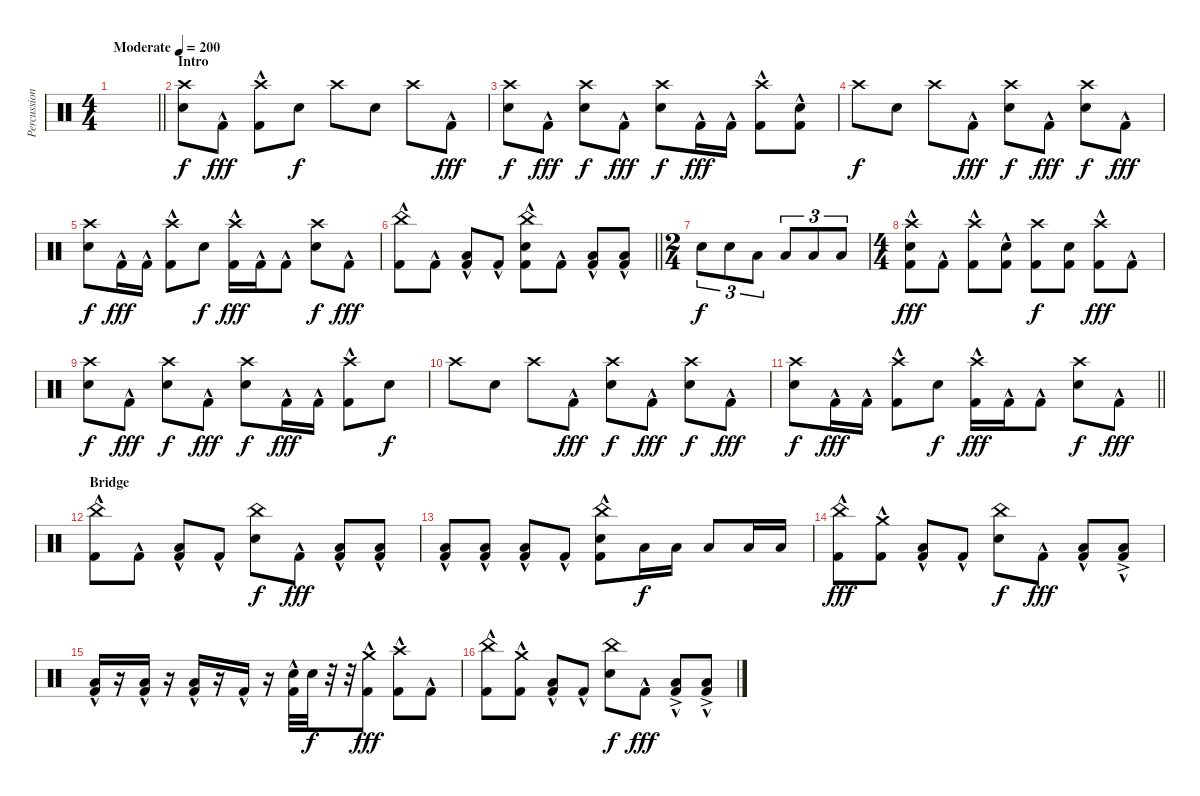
\track ("Percussion" "Percussion") {instrument percussion}
\staff {score}
\articulation defaults
\ts (4 4)
\tempo (200 "Moderate")
\clef neutral
\barLineRight lightlight
\ks c
|
\section ("" "Intro")
("Crash high (hit)" "Electric Snare (hit)").8 "Kick (hit) 2"{hac}.8{dy fff} ("Crash high (hit)" "Kick (hit) 2"{hac}).8 "Electric Snare (hit)".8{dy f} "Crash high (hit)".8 "Electric Snare (hit)".8 "Crash high (hit)".8 "Kick (hit) 2"{hac}.8{dy fff} |
("Crash high (hit)" "Electric Snare (hit)").8{dy f} "Kick (hit) 2"{hac}.8{dy fff} ("Crash high (hit)" "Electric Snare (hit)").8{dy f} "Kick (hit) 2"{hac}.8{dy fff} ("Crash high (hit)" "Electric Snare (hit)").8{dy f} "Kick (hit) 2"{hac}.16{dy fff} "Kick (hit) 2"{hac}.16 ("Crash high (hit)" "Kick (hit) 2"{hac}).8 ("Electric Snare (hit)" "Kick (hit) 2"{hac}).8 |
"Crash high (hit)".8{dy f} "Electric Snare (hit)".8 "Crash high (hit)".8 "Kick (hit) 2"{hac}.8{dy fff} ("Crash high (hit)" "Electric Snare (hit)").8{dy f} "Kick (hit) 2"{hac}.8{dy fff} ("Crash high (hit)" "Electric Snare (hit)").8{dy f} "Kick (hit) 2"{hac}.8{dy fff} |
("Crash high (hit)" "Electric Snare (hit)").8{dy f} "Kick (hit) 2"{hac}.16{dy fff} "Kick (hit) 2"{hac}.16 ("Crash high (hit)" "Kick (hit) 2"{hac}).8 "Electric Snare (hit)".8{dy f} ("Crash high (hit)" "Kick (hit) 2"{hac}).16{dy fff} "Kick (hit) 2"{hac}.16 "Kick (hit) 2"{hac}.8 ("Crash high (hit)" "Electric Snare (hit)").8{dy f} "Kick (hit) 2"{hac}.8{dy fff} |
\barLineRight lightlight
("China (hit)" "Kick (hit) 2"{hac}).8 "Kick (hit) 2"{hac}.8 ("Low Floor Tom (hit)" "Kick (hit) 2"{hac}).8 "Kick (hit) 2"{hac}.8 ("Electric Snare (hit)" "China (hit)" "Kick (hit) 2"{hac}).8 "Kick (hit) 2"{hac}.8 ("Low Floor Tom (hit)" "Kick (hit) 2"{hac}).8 ("Low Tom (hit)" "Kick (hit) 2"{hac}).8 |
\ts (2 4)
"Electric Snare (hit)".8{tu (3 2) dy f} "Electric Snare (hit)".8{tu (3 2)} "Low Tom (hit)".8{tu (3 2)} "Low Tom (hit)".8{tu (3 2)} "Low Floor Tom (hit)".8{tu (3 2)} "Low Floor Tom (hit)".8{tu (3 2)} |
\ts (4 4)
("Crash high (hit)" "Electric Snare (hit)" "Kick (hit) 2"{hac}).8{dy fff} "Kick (hit) 2"{hac}.8 ("Crash high (hit)" "Kick (hit) 2"{hac}).8 ("Electric Snare (hit)" "Kick (hit) 2"{hac}).8 ("Crash high (hit)" "Kick (hit) 2").8{dy f} ("Electric Snare (hit)" "Kick (hit) 2").8 ("Crash high (hit)" "Kick (hit) 2"{hac}).8{dy fff} "Kick (hit) 2"{hac}.8 |
("Crash high (hit)" "Electric Snare (hit)").8{dy f} "Kick (hit) 2"{hac}.8{dy fff} ("Crash high (hit)" "Electric Snare (hit)").8{dy f} "Kick (hit) 2"{hac}.8{dy fff} ("Crash high (hit)" "Electric Snare (hit)").8{dy f} "Kick (hit) 2"{hac}.16{dy fff} "Kick (hit) 2"{hac}.16 ("Crash high (hit)" "Kick (hit) 2"{hac}).8 "Electric Snare (hit)".8{dy f} |
"Crash high (hit)".8 "Electric Snare (hit)".8 "Crash high (hit)".8 "Kick (hit) 2"{hac}.8{dy fff} ("Crash high (hit)" "Electric Snare (hit)").8{dy f} "Kick (hit) 2"{hac}.8{dy fff} ("Crash high (hit)" "Electric Snare (hit)").8{dy f} "Kick (hit) 2"{hac}.8{dy fff} |
\barLineRight lightlight
("Crash high (hit)" "Electric Snare (hit)").8{dy f} "Kick (hit) 2"{hac}.16{dy fff} "Kick (hit) 2"{hac}.16 ("Crash high (hit)" "Kick (hit) 2"{hac}).8 "Electric Snare (hit)".8{dy f} ("Crash high (hit)" "Kick (hit) 2"{hac}).16{dy fff} "Kick (hit) 2"{hac}.16 "Kick (hit) 2"{hac}.8 ("Crash high (hit)" "Electric Snare (hit)").8{dy f} "Kick (hit) 2"{hac}.8{dy fff} |
\section ("" "Bridge")
("China (hit)" "Kick (hit) 2"{hac}).8 "Kick (hit) 2"{hac}.8 ("Low Floor Tom (hit)" "Kick (hit) 2"{hac}).8 "Kick (hit) 2"{hac}.8 ("Electric Snare (hit)" "China (hit)").8{dy f} "Kick (hit) 2"{hac}.8{dy fff} ("Low Floor Tom (hit)" "Kick (hit) 2"{hac}).8 ("Low Tom (hit)" "Kick (hit) 2"{hac}).8 |
("Low Floor Tom (hit)" "Kick (hit) 2"{hac}).8 ("Low Tom (hit)" "Kick (hit) 2"{hac}).8 ("Low Floor Tom (hit)" "Kick (hit) 2"{hac}).8 "Kick (hit) 2"{hac}.8 ("China (hit)" "Electric Snare (hit)" "Kick (hit) 2"{hac}).8 "Low Tom (hit)".16{dy f} "Low Tom (hit)".16 "Low Tom (hit)".8 "Low Tom (hit)".16 "Low Floor Tom (hit)".16 |
("China (hit)" "Kick (hit) 2"{hac}).8{dy fff} ("Crash medium (hit)" "Kick (hit) 2"{hac}).8 ("Low Floor Tom (hit)" "Kick (hit) 2"{hac}).8 "Kick (hit) 2"{hac}.8 ("China (hit)" "Electric Snare (hit)").8{dy f} "Kick (hit) 2"{hac}.8{dy fff} ("Low Floor Tom (hit)" "Kick (hit) 2"{hac}).8 ("Low Tom (hit)"{ac} "Kick (hit) 2"{hac}).8 |
("Low Floor Tom (hit)" "Kick (hit) 2"{hac}).16 r.16 ("Low Tom (hit)" "Kick (hit) 2"{hac}).16 r.16 ("Low Floor Tom (hit)" "Kick (hit) 2"{hac}).16 r.16 "Kick (hit) 2"{hac}.16 r.16 ("Electric Snare (hit)" "Kick (hit) 2"{hac}).32 "Electric Snare (hit)".32{dy f} r.32 r.32 ("Crash medium (hit)" "Kick (hit) 2"{hac}).8{dy fff} ("Crash high (hit)" "Kick (hit) 2"{hac}).8 "Kick (hit) 2"{hac}.8 |
("China (hit)" "Kick (hit) 2"{hac}).8 ("Crash medium (hit)" "Kick (hit) 2"{hac}).8 ("Low Floor Tom (hit)" "Kick (hit) 2"{hac}).8 "Kick (hit) 2"{hac}.8 ("China (hit)" "Electric Snare (hit)").8{dy f} "Kick (hit) 2"{hac}.8{dy fff} ("Low Tom (hit)"{ac} "Kick (hit) 2"{hac}).8 ("Low Floor Tom (hit)"{ac} "Kick (hit) 2"{hac}).8
